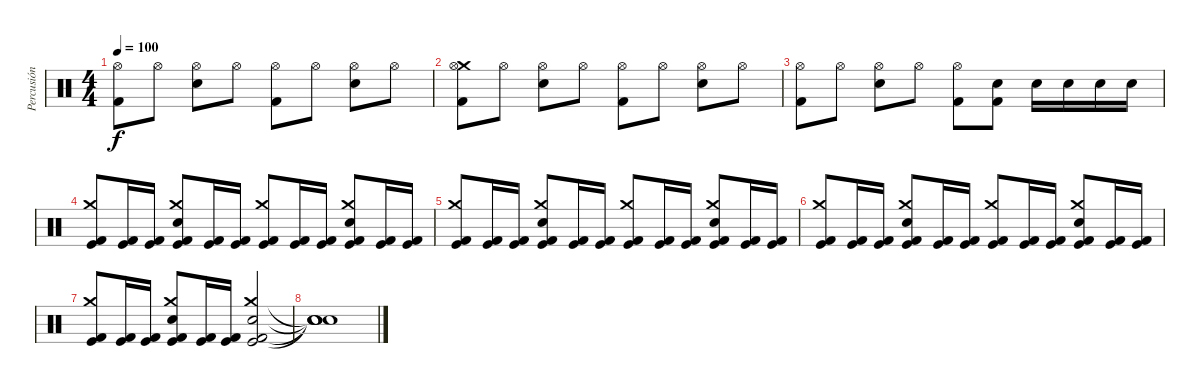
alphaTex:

\track ("Percusión" "Percusión") {instrument percussion}
\staff {score}
\articulation defaults
\ts (4 4)
\tempo 100
\clef neutral
\ks c
("Hi-Hat (open)" "Kick (hit) 2").8{dy f} "Hi-Hat (open)".8 ("Hi-Hat (open)" "Snare (hit) 2").8 "Hi-Hat (open)".8 ("Hi-Hat (open)" "Kick (hit) 2").8 "Hi-Hat (open)".8 ("Hi-Hat (open)" "Snare (hit) 2").8 "Hi-Hat (open)".8 |
("Crash medium (hit)" "Hi-Hat (open)" "Kick (hit) 2").8 "Hi-Hat (open)".8 ("Hi-Hat (open)" "Snare (hit) 2").8 "Hi-Hat (open)".8 ("Hi-Hat (open)" "Kick (hit) 2").8 "Hi-Hat (open)".8 ("Hi-Hat (open)" "Snare (hit) 2").8 "Hi-Hat (open)".8 |
("Hi-Hat (open)" "Kick (hit) 2").8 "Hi-Hat (open)".8 ("Hi-Hat (open)" "Snare (hit) 2").8 "Hi-Hat (open)".8 ("Hi-Hat (open)" "Kick (hit) 2").8 ("Snare (hit) 2" "Kick (hit) 2").8 "Snare (hit) 2".16 "Snare (hit) 2".16 "Snare (hit) 2".16 "Snare (hit) 2".16 |
("Crash medium (hit)" "Kick (hit)" "Kick (hit) 2").8 ("Kick (hit)" "Kick (hit) 2").16 ("Kick (hit)" "Kick (hit) 2").16 ("Crash medium (hit)" "Snare (hit) 2" "Kick (hit)" "Kick (hit) 2").8 ("Kick (hit)" "Kick (hit) 2").16 ("Kick (hit)" "Kick (hit) 2").16 ("Crash medium (hit)" "Kick (hit)" "Kick (hit) 2").8 ("Kick (hit)" "Kick (hit) 2").16 ("Kick (hit)" "Kick (hit) 2").16 ("Crash medium (hit)" "Snare (hit) 2" "Kick (hit)" "Kick (hit) 2").8 ("Kick (hit)" "Kick (hit) 2").16 ("Kick (hit)" "Kick (hit) 2").16 |
("Crash medium (hit)" "Kick (hit)" "Kick (hit) 2").8 ("Kick (hit)" "Kick (hit) 2").16 ("Kick (hit)" "Kick (hit) 2").16 ("Crash medium (hit)" "Snare (hit) 2" "Kick (hit)" "Kick (hit) 2").8 ("Kick (hit)" "Kick (hit) 2").16 ("Kick (hit)" "Kick (hit) 2").16 ("Crash medium (hit)" "Kick (hit)" "Kick (hit) 2").8 ("Kick (hit)" "Kick (hit) 2").16 ("Kick (hit)" "Kick (hit) 2").16 ("Crash medium (hit)" "Snare (hit) 2" "Kick (hit)" "Kick (hit) 2").8 ("Kick (hit)" "Kick (hit) 2").16 ("Kick (hit)" "Kick (hit) 2").16 |
("Crash medium (hit)" "Kick (hit)" "Kick (hit) 2").8 ("Kick (hit)" "Kick (hit) 2").16 ("Kick (hit)" "Kick (hit) 2").16 ("Crash medium (hit)" "Snare (hit) 2" "Kick (hit)" "Kick (hit) 2").8 ("Kick (hit)" "Kick (hit) 2").16 ("Kick (hit)" "Kick (hit) 2").16 ("Crash medium (hit)" "Kick (hit)" "Kick (hit) 2").8 ("Kick (hit)" "Kick (hit) 2").16 ("Kick (hit)" "Kick (hit) 2").16 ("Crash medium (hit)" "Snare (hit) 2" "Kick (hit)" "Kick (hit) 2").8 ("Kick (hit)" "Kick (hit) 2").16 ("Kick (hit)" "Kick (hit) 2").16 |
("Crash medium (hit)" "Kick (hit)" "Kick (hit) 2").8 ("Kick (hit)" "Kick (hit) 2").16 ("Kick (hit)" "Kick (hit) 2").16 ("Crash medium (hit)" "Snare (hit) 2" "Kick (hit)" "Kick (hit) 2").8 ("Kick (hit)" "Kick (hit) 2").16 ("Kick (hit)" "Kick (hit) 2").16 ("Crash medium (hit)" "Snare (hit) 2" "Kick (hit)" "Kick (hit) 2").2 |
("Snare (hit)"{t} "Snare (hit)"{t} "Snare (hit)"{t} "Snare (hit)"{t}).1
